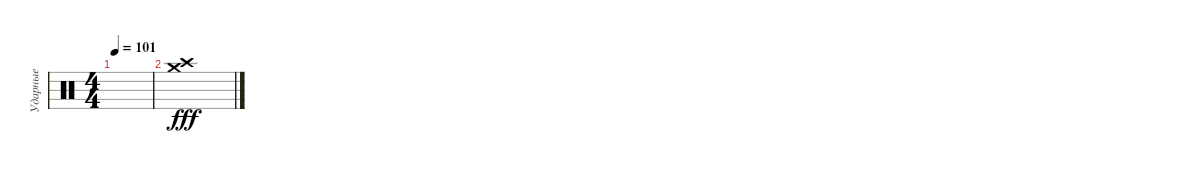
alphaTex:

\track ("Ударные" "Ударные") {instrument percussion}
\staff {score}
\articulation defaults
\ts (4 4)
\tempo 101
\clef neutral
\ks c
|
("Crash high (hit)" "Crash medium (hit)").1{dy fff}
